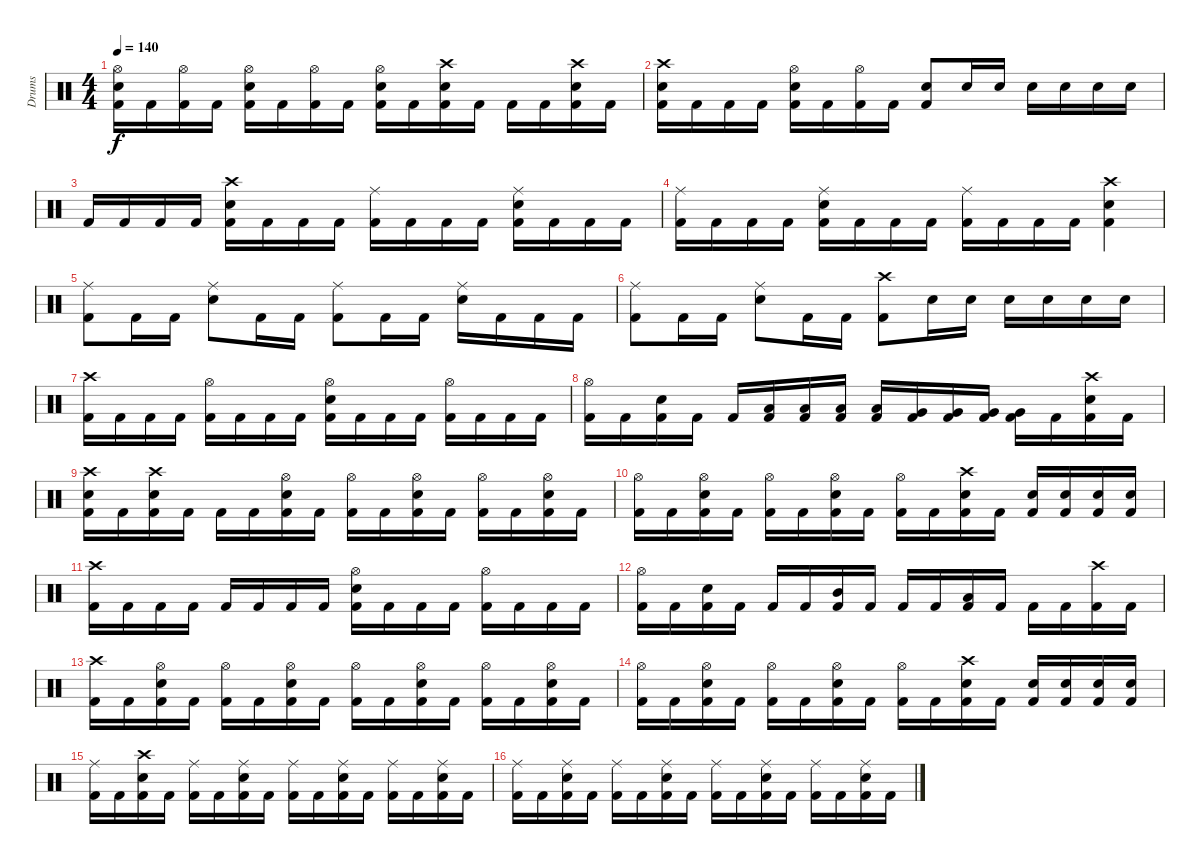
\track ("Drums" "Drums") {instrument percussion}
\staff {score}
\articulation defaults
\ts (4 4)
\tempo 140
\clef neutral
\ks c
("Hi-Hat (open)" "Electric Snare (hit)" "Kick (hit) 2").16{dy f} "Kick (hit) 2".16 ("Hi-Hat (open)" "Kick (hit) 2").16 "Kick (hit) 2".16 ("Hi-Hat (open)" "Electric Snare (hit)" "Kick (hit) 2").16 "Kick (hit) 2".16 ("Hi-Hat (open)" "Kick (hit) 2").16 "Kick (hit) 2".16 ("Hi-Hat (open)" "Electric Snare (hit)" "Kick (hit) 2").16 "Kick (hit) 2".16 ("Crash high (hit)" "Electric Snare (hit)" "Kick (hit) 2").16 "Kick (hit) 2".16 "Kick (hit) 2".16 "Kick (hit) 2".16 ("Crash high (hit)" "Electric Snare (hit)" "Kick (hit) 2").16 "Kick (hit) 2".16 |
("Crash high (hit)" "Electric Snare (hit)" "Kick (hit) 2").16 "Kick (hit) 2".16 "Kick (hit) 2".16 "Kick (hit) 2".16 ("Hi-Hat (open)" "Electric Snare (hit)" "Kick (hit) 2").16 "Kick (hit) 2".16 ("Hi-Hat (open)" "Kick (hit) 2").16 "Kick (hit) 2".16 ("Electric Snare (hit)" "Kick (hit) 2").8 "Electric Snare (hit)".16 "Electric Snare (hit)".16 "Electric Snare (hit)".16 "Electric Snare (hit)".16 "Electric Snare (hit)".16 "Electric Snare (hit)".16 |
"Kick (hit) 2".16 "Kick (hit) 2".16 "Kick (hit) 2".16 "Kick (hit) 2".16 ("Crash high (hit)" "Electric Snare (hit)" "Kick (hit) 2").16 "Kick (hit) 2".16 "Kick (hit) 2".16 "Kick (hit) 2".16 ("Ride (middle)" "Kick (hit) 2").16 "Kick (hit) 2".16 "Kick (hit) 2".16 "Kick (hit) 2".16 ("Ride (middle)" "Electric Snare (hit)" "Kick (hit) 2").16 "Kick (hit) 2".16 "Kick (hit) 2".16 "Kick (hit) 2".16 |
("Ride (middle)" "Kick (hit) 2").16 "Kick (hit) 2".16 "Kick (hit) 2".16 "Kick (hit) 2".16 ("Ride (middle)" "Electric Snare (hit)" "Kick (hit) 2").16 "Kick (hit) 2".16 "Kick (hit) 2".16 "Kick (hit) 2".16 ("Ride (middle)" "Kick (hit) 2").16 "Kick (hit) 2".16 "Kick (hit) 2".16 "Kick (hit) 2".16 ("Crash high (hit)" "Electric Snare (hit)" "Kick (hit) 2").4 |
("Ride (middle)" "Kick (hit) 2").8 "Kick (hit) 2".16 "Kick (hit) 2".16 ("Ride (middle)" "Electric Snare (hit)").8 "Kick (hit) 2".16 "Kick (hit) 2".16 ("Ride (middle)" "Kick (hit) 2").8 "Kick (hit) 2".16 "Kick (hit) 2".16 ("Ride (middle)" "Electric Snare (hit)").16 "Kick (hit) 2".16 "Kick (hit) 2".16 "Kick (hit) 2".16 |
("Ride (middle)" "Kick (hit) 2").8 "Kick (hit) 2".16 "Kick (hit) 2".16 ("Ride (middle)" "Electric Snare (hit)").8 "Kick (hit) 2".16 "Kick (hit) 2".16 ("Crash high (hit)" "Kick (hit) 2").8 "Electric Snare (hit)".16 "Electric Snare (hit)".16 "Electric Snare (hit)".16 "Electric Snare (hit)".16 "Electric Snare (hit)".16 "Electric Snare (hit)".16 |
("Crash high (hit)" "Kick (hit) 2").16 "Kick (hit) 2".16 "Kick (hit) 2".16 "Kick (hit) 2".16 ("Hi-Hat (open)" "Kick (hit) 2").16 "Kick (hit) 2".16 "Kick (hit) 2".16 "Kick (hit) 2".16 ("Hi-Hat (open)" "Electric Snare (hit)" "Kick (hit) 2").16 "Kick (hit) 2".16 "Kick (hit) 2".16 "Kick (hit) 2".16 ("Hi-Hat (open)" "Kick (hit) 2").16 "Kick (hit) 2".16 "Kick (hit) 2".16 "Kick (hit) 2".16 |
("Hi-Hat (open)" "Kick (hit) 2").16 "Kick (hit) 2".16 ("Electric Snare (hit)" "Kick (hit) 2").16 "Kick (hit) 2".16 "Kick (hit) 2".16 ("Low Tom (hit)" "Kick (hit) 2").16 ("Low Tom (hit)" "Kick (hit) 2").16 ("Low Tom (hit)" "Kick (hit) 2").16 ("Low Tom (hit)" "Kick (hit) 2").16 ("Very Low Tom (hit)" "Kick (hit) 2").16 ("Very Low Tom (hit)" "Kick (hit) 2").16 ("Very Low Tom (hit)" "Kick (hit) 2").16 ("Very Low Tom (hit)" "Kick (hit) 2").16 "Kick (hit) 2".16 ("Crash high (hit)" "Electric Snare (hit)" "Kick (hit) 2").16 "Kick (hit) 2".16 |
("Crash high (hit)" "Electric Snare (hit)" "Kick (hit) 2").16 "Kick (hit) 2".16 ("Crash high (hit)" "Electric Snare (hit)" "Kick (hit) 2").16 "Kick (hit) 2".16 "Kick (hit) 2".16 "Kick (hit) 2".16 ("Hi-Hat (open)" "Electric Snare (hit)" "Kick (hit) 2").16 "Kick (hit) 2".16 ("Hi-Hat (open)" "Kick (hit) 2").16 "Kick (hit) 2".16 ("Hi-Hat (open)" "Electric Snare (hit)" "Kick (hit) 2").16 "Kick (hit) 2".16 ("Hi-Hat (open)" "Kick (hit) 2").16 "Kick (hit) 2".16 ("Hi-Hat (open)" "Electric Snare (hit)" "Kick (hit) 2").16 "Kick (hit) 2".16 |
("Hi-Hat (open)" "Kick (hit) 2").16 "Kick (hit) 2".16 ("Hi-Hat (open)" "Electric Snare (hit)" "Kick (hit) 2").16 "Kick (hit) 2".16 ("Hi-Hat (open)" "Kick (hit) 2").16 "Kick (hit) 2".16 ("Hi-Hat (open)" "Electric Snare (hit)" "Kick (hit) 2").16 "Kick (hit) 2".16 ("Hi-Hat (open)" "Kick (hit) 2").16 "Kick (hit) 2".16 ("Crash high (hit)" "Electric Snare (hit)" "Kick (hit) 2").16 "Kick (hit) 2".16 ("Electric Snare (hit)" "Kick (hit) 2").16 ("Electric Snare (hit)" "Kick (hit) 2").16 ("Electric Snare (hit)" "Kick (hit) 2").16 ("Electric Snare (hit)" "Kick (hit) 2").16 |
("Crash high (hit)" "Kick (hit) 2").16 "Kick (hit) 2".16 "Kick (hit) 2".16 "Kick (hit) 2".16 "Kick (hit) 2".16 "Kick (hit) 2".16 "Kick (hit) 2".16 "Kick (hit) 2".16 ("Hi-Hat (open)" "Electric Snare (hit)" "Kick (hit) 2").16 "Kick (hit) 2".16 "Kick (hit) 2".16 "Kick (hit) 2".16 ("Hi-Hat (open)" "Kick (hit) 2").16 "Kick (hit) 2".16 "Kick (hit) 2".16 "Kick (hit) 2".16 |
("Hi-Hat (open)" "Kick (hit) 2").16 "Kick (hit) 2".16 ("Electric Snare (hit)" "Kick (hit) 2").16 "Kick (hit) 2".16 "Kick (hit) 2".16 "Kick (hit) 2".16 ("Mid Tom (hit)" "Kick (hit) 2").16 "Kick (hit) 2".16 "Kick (hit) 2".16 "Kick (hit) 2".16 ("Low Tom (hit)" "Kick (hit) 2").16 "Kick (hit) 2".16 "Kick (hit) 2".16 "Kick (hit) 2".16 ("Crash high (hit)" "Kick (hit) 2").16 "Kick (hit) 2".16 |
("Crash high (hit)" "Kick (hit) 2").16 "Kick (hit) 2".16 ("Hi-Hat (open)" "Electric Snare (hit)" "Kick (hit) 2").16 "Kick (hit) 2".16 ("Hi-Hat (open)" "Kick (hit) 2").16 "Kick (hit) 2".16 ("Hi-Hat (open)" "Electric Snare (hit)" "Kick (hit) 2").16 "Kick (hit) 2".16 ("Hi-Hat (open)" "Kick (hit) 2").16 "Kick (hit) 2".16 ("Hi-Hat (open)" "Electric Snare (hit)" "Kick (hit) 2").16 "Kick (hit) 2".16 ("Hi-Hat (open)" "Kick (hit) 2").16 "Kick (hit) 2".16 ("Hi-Hat (open)" "Electric Snare (hit)" "Kick (hit) 2").16 "Kick (hit) 2".16 |
("Hi-Hat (open)" "Kick (hit) 2").16 "Kick (hit) 2".16 ("Hi-Hat (open)" "Electric Snare (hit)" "Kick (hit) 2").16 "Kick (hit) 2".16 ("Hi-Hat (open)" "Kick (hit) 2").16 "Kick (hit) 2".16 ("Hi-Hat (open)" "Electric Snare (hit)" "Kick (hit) 2").16 "Kick (hit) 2".16 ("Hi-Hat (open)" "Kick (hit) 2").16 "Kick (hit) 2".16 ("Crash high (hit)" "Electric Snare (hit)" "Kick (hit) 2").16 "Kick (hit) 2".16 ("Electric Snare (hit)" "Kick (hit) 2").16 ("Electric Snare (hit)" "Kick (hit) 2").16 ("Electric Snare (hit)" "Kick (hit) 2").16 ("Electric Snare (hit)" "Kick (hit) 2").16 |
("Ride (middle)" "Kick (hit) 2").16 "Kick (hit) 2".16 ("Crash high (hit)" "Electric Snare (hit)" "Kick (hit) 2").16 "Kick (hit) 2".16 ("Ride (middle)" "Kick (hit) 2").16 "Kick (hit) 2".16 ("Ride (middle)" "Electric Snare (hit)" "Kick (hit) 2").16 "Kick (hit) 2".16 ("Ride (middle)" "Kick (hit) 2").16 "Kick (hit) 2".16 ("Ride (middle)" "Electric Snare (hit)" "Kick (hit) 2").16 "Kick (hit) 2".16 ("Ride (middle)" "Kick (hit) 2").16 "Kick (hit) 2".16 ("Ride (middle)" "Electric Snare (hit)" "Kick (hit) 2").16 "Kick (hit) 2".16 |
("Ride (middle)" "Kick (hit) 2").16 "Kick (hit) 2".16 ("Ride (middle)" "Electric Snare (hit)" "Kick (hit) 2").16 "Kick (hit) 2".16 ("Ride (middle)" "Kick (hit) 2").16 "Kick (hit) 2".16 ("Ride (middle)" "Electric Snare (hit)" "Kick (hit) 2").16 "Kick (hit) 2".16 ("Ride (middle)" "Kick (hit) 2").16 "Kick (hit) 2".16 ("Ride (middle)" "Electric Snare (hit)" "Kick (hit) 2").16 "Kick (hit) 2".16 ("Ride (middle)" "Kick (hit) 2").16 "Kick (hit) 2".16 ("Ride (middle)" "Electric Snare (hit)" "Kick (hit) 2").16 "Kick (hit) 2".16
